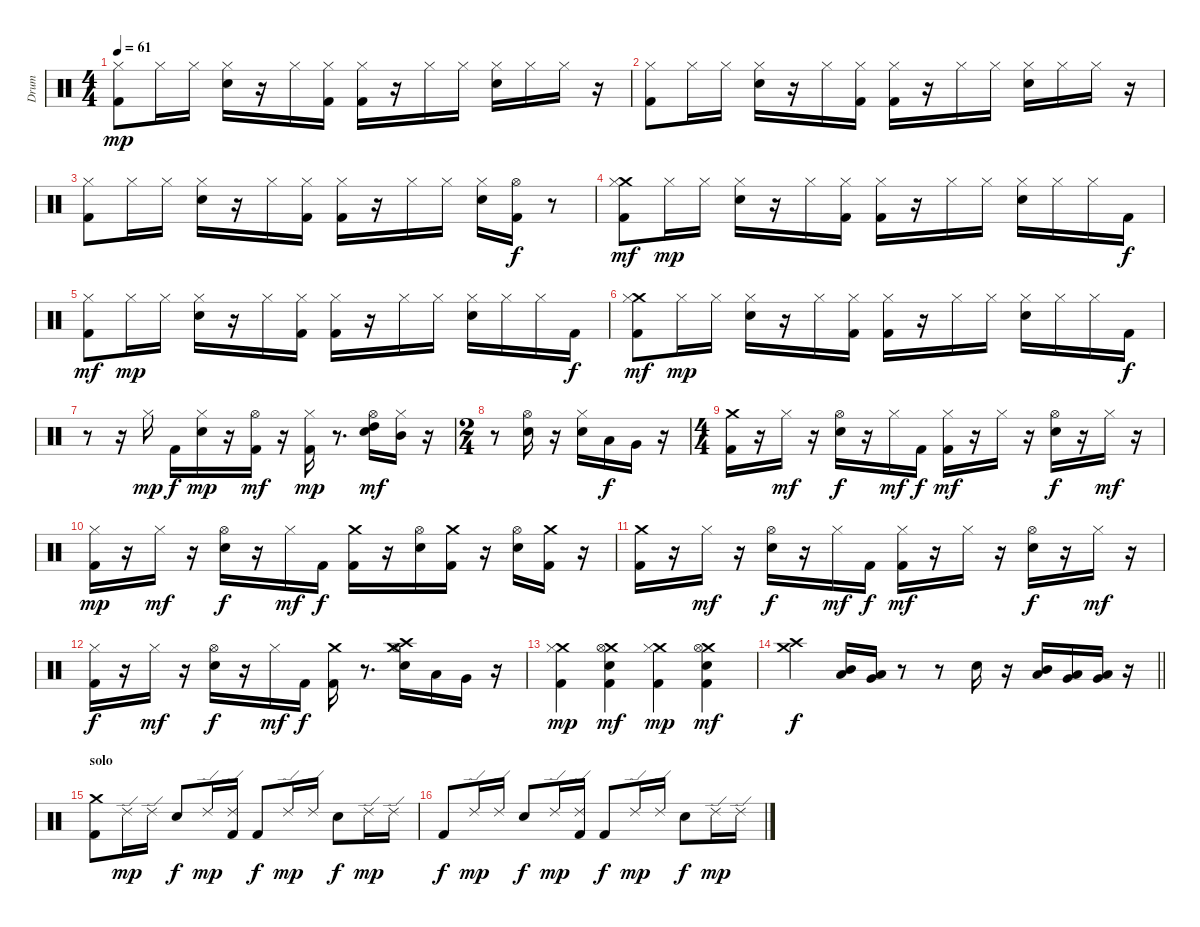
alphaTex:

\track ("Drum" "Drum") {instrument percussion}
\staff {score}
\articulation defaults
\ts (4 4)
\tempo 61
\clef neutral
\ks c
("Hi-Hat (closed)" "Kick (hit) 2").8{dy mp} "Hi-Hat (closed)".16 "Hi-Hat (closed)".16 ("Hi-Hat (closed)" "Snare (hit) 2").16 r.16 "Hi-Hat (closed)".16 ("Hi-Hat (closed)" "Kick (hit) 2").16 ("Hi-Hat (closed)" "Kick (hit) 2").16 r.16 "Hi-Hat (closed)".16 "Hi-Hat (closed)".16 ("Hi-Hat (closed)" "Snare (hit) 2").16 "Hi-Hat (closed)".16 "Hi-Hat (closed)".16 r.16 |
("Hi-Hat (closed)" "Kick (hit) 2").8 "Hi-Hat (closed)".16 "Hi-Hat (closed)".16 ("Hi-Hat (closed)" "Snare (hit) 2").16 r.16 "Hi-Hat (closed)".16 ("Hi-Hat (closed)" "Kick (hit) 2").16 ("Hi-Hat (closed)" "Kick (hit) 2").16 r.16 "Hi-Hat (closed)".16 "Hi-Hat (closed)".16 ("Hi-Hat (closed)" "Snare (hit) 2").16 "Hi-Hat (closed)".16 "Hi-Hat (closed)".16 r.16 |
("Hi-Hat (closed)" "Kick (hit) 2").8 "Hi-Hat (closed)".16 "Hi-Hat (closed)".16 ("Hi-Hat (closed)" "Snare (hit) 2").16 r.16 "Hi-Hat (closed)".16 ("Hi-Hat (closed)" "Kick (hit) 2").16 ("Hi-Hat (closed)" "Kick (hit) 2").16 r.16 "Hi-Hat (closed)".16 "Hi-Hat (closed)".16 ("Hi-Hat (closed)" "Snare (hit) 2").16 ("Hi-Hat (open)" "Kick (hit) 2").16{dy f} r.8 |
("Crash medium (hit)" "Hi-Hat (closed)" "Kick (hit) 2").8{dy mf} "Hi-Hat (closed)".16{dy mp} "Hi-Hat (closed)".16 ("Hi-Hat (closed)" "Snare (hit) 2").16 r.16 "Hi-Hat (closed)".16 ("Hi-Hat (closed)" "Kick (hit) 2").16 ("Hi-Hat (closed)" "Kick (hit) 2").16 r.16 "Hi-Hat (closed)".16 "Hi-Hat (closed)".16 ("Hi-Hat (closed)" "Snare (hit) 2").16 "Hi-Hat (closed)".16 "Hi-Hat (closed)".16 "Kick (hit) 2".16{dy f} |
("Hi-Hat (closed)" "Kick (hit) 2").8{dy mf} "Hi-Hat (closed)".16{dy mp} "Hi-Hat (closed)".16 ("Hi-Hat (closed)" "Snare (hit) 2").16 r.16 "Hi-Hat (closed)".16 ("Hi-Hat (closed)" "Kick (hit) 2").16 ("Hi-Hat (closed)" "Kick (hit) 2").16 r.16 "Hi-Hat (closed)".16 "Hi-Hat (closed)".16 ("Hi-Hat (closed)" "Snare (hit) 2").16 "Hi-Hat (closed)".16 "Hi-Hat (closed)".16 "Kick (hit) 2".16{dy f} |
("Crash medium (hit)" "Hi-Hat (closed)" "Kick (hit) 2").8{dy mf} "Hi-Hat (closed)".16{dy mp} "Hi-Hat (closed)".16 ("Hi-Hat (closed)" "Snare (hit) 2").16 r.16 "Hi-Hat (closed)".16 ("Hi-Hat (closed)" "Kick (hit) 2").16 ("Hi-Hat (closed)" "Kick (hit) 2").16 r.16 "Hi-Hat (closed)".16 "Hi-Hat (closed)".16 ("Hi-Hat (closed)" "Snare (hit) 2").16 "Hi-Hat (closed)".16 "Hi-Hat (closed)".16 "Kick (hit) 2".16{dy f} |
r.8 r.16 "Hi-Hat (closed)".16{dy mp} "Kick (hit) 2".16{dy f} ("Hi-Hat (closed)" "Snare (hit) 2").16{dy mp} r.16 ("Hi-Hat (open)" "Kick (hit) 2").16{dy mf} r.16 ("Hi-Hat (closed)" "Kick (hit) 2").16{dy mp} r.8{d} ("Hi-Hat (open)" "High Tom (hit)" "Snare (hit) 2").16{dy mf} ("Hi-Hat (closed)" "Mid Tom (hit)").16 r.16 |
\ts (2 4)
r.8 ("Hi-Hat (open)" "Snare (hit) 2").16 r.16 ("Hi-Hat (closed)" "Snare (hit) 2").16 "Low Tom (hit)".16{dy f} "Very Low Tom (hit)".16 r.16 |
\ts (4 4)
("Crash medium (hit)" "Kick (hit) 2").16 r.16 "Hi-Hat (closed)".16{dy mf} r.16 ("Hi-Hat (open)" "Snare (hit) 2").16{dy f} r.16 "Hi-Hat (closed)".16{dy mf} "Kick (hit) 2".16{dy f} ("Hi-Hat (closed)" "Kick (hit) 2").16{dy mf} r.16 "Hi-Hat (closed)".16 r.16 ("Hi-Hat (open)" "Snare (hit) 2").16{dy f} r.16 "Hi-Hat (closed)".16{dy mf} r.16 |
("Hi-Hat (closed)" "Kick (hit) 2").16{dy mp} r.16 "Hi-Hat (closed)".16{dy mf} r.16 ("Hi-Hat (open)" "Snare (hit) 2").16{dy f} r.16 "Hi-Hat (closed)".16{dy mf} "Kick (hit) 2".16{dy f} ("Crash medium (hit)" "Kick (hit) 2").16 r.16 ("Hi-Hat (open)" "Snare (hit) 2").16 ("Crash medium (hit)" "Kick (hit) 2").16 r.16 ("Hi-Hat (open)" "Snare (hit) 2").16 ("Crash medium (hit)" "Kick (hit) 2").16 r.16 |
("Crash medium (hit)" "Kick (hit) 2").16 r.16 "Hi-Hat (closed)".16{dy mf} r.16 ("Hi-Hat (open)" "Snare (hit) 2").16{dy f} r.16 "Hi-Hat (closed)".16{dy mf} "Kick (hit) 2".16{dy f} ("Hi-Hat (closed)" "Kick (hit) 2").16{dy mf} r.16 "Hi-Hat (closed)".16 r.16 ("Hi-Hat (open)" "Snare (hit) 2").16{dy f} r.16 "Hi-Hat (closed)".16{dy mf} r.16 |
("Hi-Hat (closed)" "Kick (hit) 2").16{dy f} r.16 "Hi-Hat (closed)".16{dy mf} r.16 ("Hi-Hat (open)" "Snare (hit) 2").16{dy f} r.16 "Hi-Hat (closed)".16{dy mf} "Kick (hit) 2".16{dy f} ("Crash medium (hit)" "Kick (hit) 2").16 r.8{d} ("Crash medium (hit)" "Crash high (hit)" "Hi-Hat (open)" "Snare (hit) 2").16 "Low Tom (hit)".16 "Very Low Tom (hit)".16 r.16 |
("Crash medium (hit)" "Hi-Hat (closed)" "Kick (hit) 2").4{dy mp} ("Crash medium (hit)" "Hi-Hat (open)" "Snare (hit) 2" "Kick (hit) 2").4{dy mf} ("Crash medium (hit)" "Hi-Hat (closed)" "Kick (hit) 2").4{dy mp} ("Crash medium (hit)" "Hi-Hat (open)" "Snare (hit) 2" "Kick (hit) 2").4{dy mf} |
\barLineRight lightlight
("Crash high (hit)" "Crash medium (hit)").4{dy f} ("Mid Tom (hit)" "Low Tom (hit)").16 ("Low Tom (hit)" "Very Low Tom (hit)").16 r.8 r.8 "Snare (hit) 2".16 r.16 ("Mid Tom (hit)" "Low Tom (hit)").16 ("Low Tom (hit)" "Very Low Tom (hit)").16 ("Very Low Tom (hit)" "Low Floor Tom (hit)").16 r.16 |
\section ("" "solo")
("Crash medium (hit)" "Kick (hit) 2").8 "Ride (edge) 2".16{dy mp} "Ride (edge) 2".16 "Snare (hit) 2".8{dy f} "Ride (edge) 2".16{dy mp} ("Ride (edge) 2" "Kick (hit) 2").16 "Kick (hit) 2".8{dy f} "Ride (edge) 2".16{dy mp} "Ride (edge) 2".16 "Snare (hit) 2".8{dy f} "Ride (edge) 2".16{dy mp} "Ride (edge) 2".16 |
"Kick (hit) 2".8{dy f} "Ride (edge) 2".16{dy mp} "Ride (edge) 2".16 "Snare (hit) 2".8{dy f} "Ride (edge) 2".16{dy mp} ("Ride (edge) 2" "Kick (hit) 2").16 "Kick (hit) 2".8{dy f} "Ride (edge) 2".16{dy mp} "Ride (edge) 2".16 "Snare (hit) 2".8{dy f} "Ride (edge) 2".16{dy mp} "Ride (edge) 2".16
